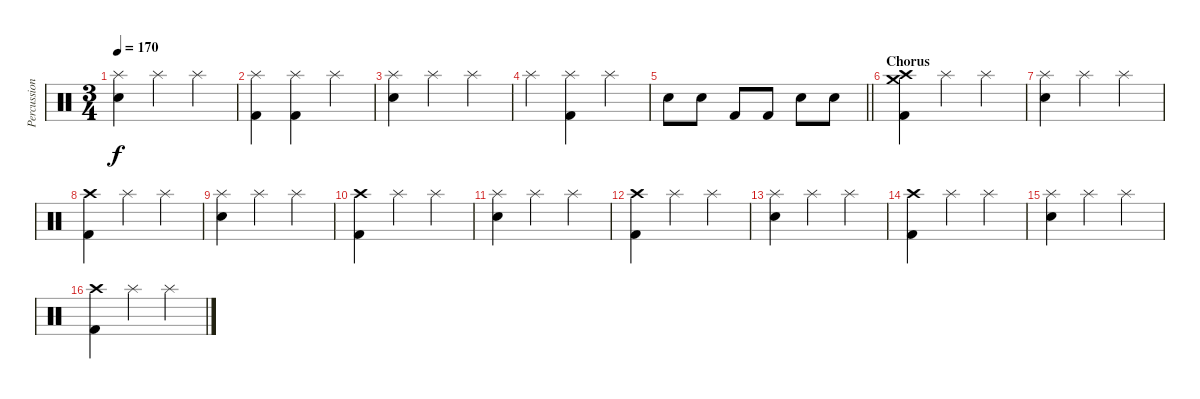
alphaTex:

\track ("Percussion" "Percussion") {instrument percussion}
\staff {score}
\articulation defaults
\ts (3 4)
\tempo 170
\clef neutral
\ks c
("Splash (hit)" "Electric Snare (hit)").4{dy f} "Splash (hit)".4 "Splash (hit)".4 |
("Splash (hit)" "Kick (hit) 2").4 ("Splash (hit)" "Kick (hit) 2").4 "Splash (hit)".4 |
("Splash (hit)" "Electric Snare (hit)").4 "Splash (hit)".4 "Splash (hit)".4 |
"Splash (hit)".4 ("Splash (hit)" "Kick (hit) 2").4 "Splash (hit)".4 |
\barLineRight lightlight "Electric Snare (hit)".8 "Electric Snare (hit)".8 "Kick (hit) 2".8 "Kick (hit) 2".8 "Electric Snare (hit)".8 "Electric Snare (hit)".8
|
\section ("" "Chorus")
("Crash high (hit)" "Crash medium (hit)" "Kick (hit) 2").4 "Splash (hit)".4 "Splash (hit)".4 |
("Splash (hit)" "Electric Snare (hit)").4 "Splash (hit)".4 "Splash (hit)".4 |
("Crash high (hit)" "Kick (hit) 2").4 "Splash (hit)".4 "Splash (hit)".4 |
("Splash (hit)" "Electric Snare (hit)").4 "Splash (hit)".4 "Splash (hit)".4 |
("Crash high (hit)" "Kick (hit) 2").4 "Splash (hit)".4 "Splash (hit)".4 |
("Splash (hit)" "Electric Snare (hit)").4 "Splash (hit)".4 "Splash (hit)".4 |
("Crash high (hit)" "Kick (hit) 2").4 "Splash (hit)".4 "Splash (hit)".4 |
("Splash (hit)" "Electric Snare (hit)").4 "Splash (hit)".4 "Splash (hit)".4 |
("Crash high (hit)" "Kick (hit) 2").4 "Splash (hit)".4 "Splash (hit)".4 |
("Splash (hit)" "Electric Snare (hit)").4 "Splash (hit)".4 "Splash (hit)".4 |
("Crash high (hit)" "Kick (hit) 2").4 "Splash (hit)".4 "Splash (hit)".4
